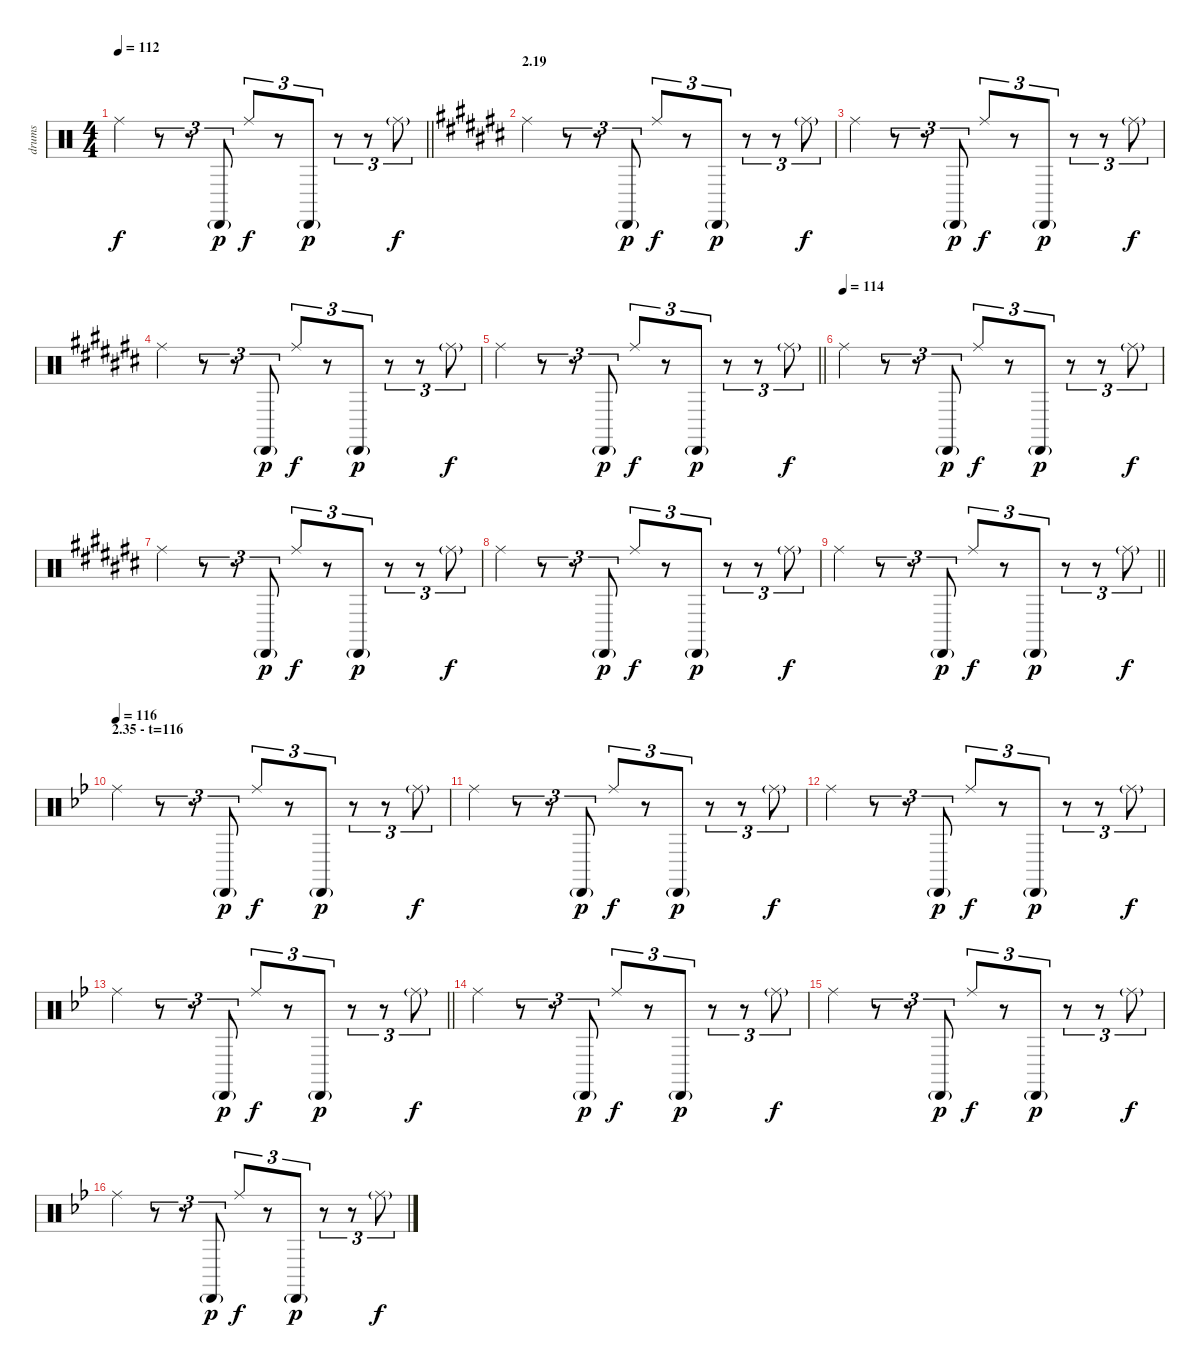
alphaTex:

\track ("drums" "drums") {instrument percussion}
\staff {score}
\articulation defaults
\ts (4 4)
\tempo 112
\clef neutral
\barLineRight lightlight
\ks c "Ride (middle)".4{dy f}
r.8{tu (3 2)} r.8{tu (3 2)} "Cabasa (hit)"{g}.8{tu (3 2) dy p} "Ride (middle)".8{tu (3 2) dy f} r.8{tu (3 2)} "Cabasa (hit)"{g}.8{tu (3 2) dy p} r.8{tu (3 2)} r.8{tu (3 2)} "Ride (middle)"{g}.8{tu (3 2) dy f} |
\section ("" "2.19")
\ks c# "Ride (middle)".4
r.8{tu (3 2)} r.8{tu (3 2)} "Cabasa (hit)"{g}.8{tu (3 2) dy p} "Ride (middle)".8{tu (3 2) dy f} r.8{tu (3 2)} "Cabasa (hit)"{g}.8{tu (3 2) dy p} r.8{tu (3 2)} r.8{tu (3 2)} "Ride (middle)"{g}.8{tu (3 2) dy f} |
"Ride (middle)".4 r.8{tu (3 2)} r.8{tu (3 2)} "Cabasa (hit)"{g}.8{tu (3 2) dy p} "Ride (middle)".8{tu (3 2) dy f} r.8{tu (3 2)} "Cabasa (hit)"{g}.8{tu (3 2) dy p} r.8{tu (3 2)} r.8{tu (3 2)} "Ride (middle)"{g}.8{tu (3 2) dy f} |
"Ride (middle)".4 r.8{tu (3 2)} r.8{tu (3 2)} "Cabasa (hit)"{g}.8{tu (3 2) dy p} "Ride (middle)".8{tu (3 2) dy f} r.8{tu (3 2)} "Cabasa (hit)"{g}.8{tu (3 2) dy p} r.8{tu (3 2)} r.8{tu (3 2)} "Ride (middle)"{g}.8{tu (3 2) dy f} |
\barLineRight lightlight "Ride (middle)".4
r.8{tu (3 2)} r.8{tu (3 2)} "Cabasa (hit)"{g}.8{tu (3 2) dy p} "Ride (middle)".8{tu (3 2) dy f} r.8{tu (3 2)} "Cabasa (hit)"{g}.8{tu (3 2) dy p} r.8{tu (3 2)} r.8{tu (3 2)} "Ride (middle)"{g}.8{tu (3 2) dy f} |
\tempo (114)
"Ride (middle)".4 r.8{tu (3 2)} r.8{tu (3 2)} "Cabasa (hit)"{g}.8{tu (3 2) dy p} "Ride (middle)".8{tu (3 2) dy f} r.8{tu (3 2)} "Cabasa (hit)"{g}.8{tu (3 2) dy p} r.8{tu (3 2)} r.8{tu (3 2)} "Ride (middle)"{g}.8{tu (3 2) dy f} |
"Ride (middle)".4 r.8{tu (3 2)} r.8{tu (3 2)} "Cabasa (hit)"{g}.8{tu (3 2) dy p} "Ride (middle)".8{tu (3 2) dy f} r.8{tu (3 2)} "Cabasa (hit)"{g}.8{tu (3 2) dy p} r.8{tu (3 2)} r.8{tu (3 2)} "Ride (middle)"{g}.8{tu (3 2) dy f} |
"Ride (middle)".4 r.8{tu (3 2)} r.8{tu (3 2)} "Cabasa (hit)"{g}.8{tu (3 2) dy p} "Ride (middle)".8{tu (3 2) dy f} r.8{tu (3 2)} "Cabasa (hit)"{g}.8{tu (3 2) dy p} r.8{tu (3 2)} r.8{tu (3 2)} "Ride (middle)"{g}.8{tu (3 2) dy f} |
\barLineRight lightlight "Ride (middle)".4
r.8{tu (3 2)} r.8{tu (3 2)} "Cabasa (hit)"{g}.8{tu (3 2) dy p} "Ride (middle)".8{tu (3 2) dy f} r.8{tu (3 2)} "Cabasa (hit)"{g}.8{tu (3 2) dy p} r.8{tu (3 2)} r.8{tu (3 2)} "Ride (middle)"{g}.8{tu (3 2) dy f} |
\section ("" "2.35 - t=116")
\tempo 116
\ks bb "Ride (middle)".4
r.8{tu (3 2)} r.8{tu (3 2)} "Cabasa (hit)"{g}.8{tu (3 2) dy p} "Ride (middle)".8{tu (3 2) dy f} r.8{tu (3 2)} "Cabasa (hit)"{g}.8{tu (3 2) dy p} r.8{tu (3 2)} r.8{tu (3 2)} "Ride (middle)"{g}.8{tu (3 2) dy f} |
"Ride (middle)".4 r.8{tu (3 2)} r.8{tu (3 2)} "Cabasa (hit)"{g}.8{tu (3 2) dy p} "Ride (middle)".8{tu (3 2) dy f} r.8{tu (3 2)} "Cabasa (hit)"{g}.8{tu (3 2) dy p} r.8{tu (3 2)} r.8{tu (3 2)} "Ride (middle)"{g}.8{tu (3 2) dy f} |
"Ride (middle)".4 r.8{tu (3 2)} r.8{tu (3 2)} "Cabasa (hit)"{g}.8{tu (3 2) dy p} "Ride (middle)".8{tu (3 2) dy f} r.8{tu (3 2)} "Cabasa (hit)"{g}.8{tu (3 2) dy p} r.8{tu (3 2)} r.8{tu (3 2)} "Ride (middle)"{g}.8{tu (3 2) dy f} |
\barLineRight lightlight "Ride (middle)".4
r.8{tu (3 2)} r.8{tu (3 2)} "Cabasa (hit)"{g}.8{tu (3 2) dy p} "Ride (middle)".8{tu (3 2) dy f} r.8{tu (3 2)} "Cabasa (hit)"{g}.8{tu (3 2) dy p} r.8{tu (3 2)} r.8{tu (3 2)} "Ride (middle)"{g}.8{tu (3 2) dy f} |
"Ride (middle)".4 r.8{tu (3 2)} r.8{tu (3 2)} "Cabasa (hit)"{g}.8{tu (3 2) dy p} "Ride (middle)".8{tu (3 2) dy f} r.8{tu (3 2)} "Cabasa (hit)"{g}.8{tu (3 2) dy p} r.8{tu (3 2)} r.8{tu (3 2)} "Ride (middle)"{g}.8{tu (3 2) dy f} |
"Ride (middle)".4 r.8{tu (3 2)} r.8{tu (3 2)} "Cabasa (hit)"{g}.8{tu (3 2) dy p} "Ride (middle)".8{tu (3 2) dy f} r.8{tu (3 2)} "Cabasa (hit)"{g}.8{tu (3 2) dy p} r.8{tu (3 2)} r.8{tu (3 2)} "Ride (middle)"{g}.8{tu (3 2) dy f} |
"Ride (middle)".4 r.8{tu (3 2)} r.8{tu (3 2)} "Cabasa (hit)"{g}.8{tu (3 2) dy p} "Ride (middle)".8{tu (3 2) dy f} r.8{tu (3 2)} "Cabasa (hit)"{g}.8{tu (3 2) dy p} r.8{tu (3 2)} r.8{tu (3 2)} "Ride (middle)"{g}.8{tu (3 2) dy f}
